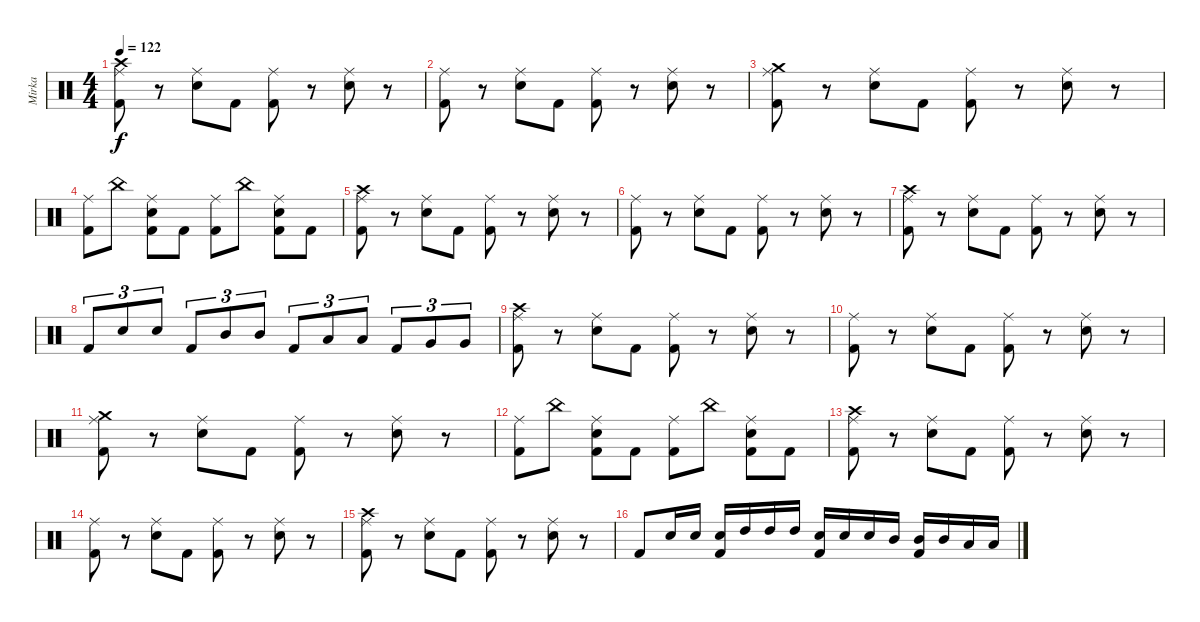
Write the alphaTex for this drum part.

\track ("Mirka" "Mirka") {instrument percussion}
\staff {score}
\articulation defaults
\ts (4 4)
\tempo 122
\clef neutral
\ks c
("Crash high (hit)" "Ride (middle)" "Kick (hit) 2").8{dy f} r.8 ("Ride (middle)" "Electric Snare (hit)").8 "Kick (hit) 2".8 ("Ride (middle)" "Kick (hit) 2").8 r.8 ("Ride (middle)" "Electric Snare (hit)").8 r.8 |
("Ride (middle)" "Kick (hit) 2").8 r.8 ("Ride (middle)" "Electric Snare (hit)").8 "Kick (hit) 2".8 ("Ride (middle)" "Kick (hit) 2").8 r.8 ("Ride (middle)" "Electric Snare (hit)").8 r.8 |
("Crash medium (hit)" "Ride (middle)" "Kick (hit) 2").8 r.8 ("Ride (middle)" "Electric Snare (hit)").8 "Kick (hit) 2".8 ("Ride (middle)" "Kick (hit) 2").8 r.8 ("Ride (middle)" "Electric Snare (hit)").8 r.8 |
("Ride (middle)" "Kick (hit) 2").8 "China (hit)".8 ("Ride (middle)" "Electric Snare (hit)" "Kick (hit) 2").8 "Kick (hit) 2".8 ("Ride (middle)" "Kick (hit) 2").8 "China (hit)".8 ("Ride (middle)" "Electric Snare (hit)" "Kick (hit) 2").8 "Kick (hit) 2".8 |
("Crash high (hit)" "Ride (middle)" "Kick (hit) 2").8 r.8 ("Ride (middle)" "Electric Snare (hit)").8 "Kick (hit) 2".8 ("Ride (middle)" "Kick (hit) 2").8 r.8 ("Ride (middle)" "Electric Snare (hit)").8 r.8 |
("Ride (middle)" "Kick (hit) 2").8 r.8 ("Ride (middle)" "Electric Snare (hit)").8 "Kick (hit) 2".8 ("Ride (middle)" "Kick (hit) 2").8 r.8 ("Ride (middle)" "Electric Snare (hit)").8 r.8 |
("Crash high (hit)" "Ride (middle)" "Kick (hit) 2").8 r.8 ("Ride (middle)" "Electric Snare (hit)").8 "Kick (hit) 2".8 ("Ride (middle)" "Kick (hit) 2").8 r.8 ("Ride (middle)" "Electric Snare (hit)").8 r.8 |
"Kick (hit) 2".8{tu (3 2)} "Electric Snare (hit)".8{tu (3 2)} "Electric Snare (hit)".8{tu (3 2)} "Kick (hit) 2".8{tu (3 2)} "Mid Tom (hit)".8{tu (3 2)} "Mid Tom (hit)".8{tu (3 2)} "Kick (hit) 2".8{tu (3 2)} "Low Tom (hit)".8{tu (3 2)} "Low Tom (hit)".8{tu (3 2)} "Kick (hit) 2".8{tu (3 2)} "Very Low Tom (hit)".8{tu (3 2)} "Very Low Tom (hit)".8{tu (3 2)} |
("Crash high (hit)" "Ride (middle)" "Kick (hit) 2").8 r.8 ("Ride (middle)" "Electric Snare (hit)").8 "Kick (hit) 2".8 ("Ride (middle)" "Kick (hit) 2").8 r.8 ("Ride (middle)" "Electric Snare (hit)").8 r.8 |
("Ride (middle)" "Kick (hit) 2").8 r.8 ("Ride (middle)" "Electric Snare (hit)").8 "Kick (hit) 2".8 ("Ride (middle)" "Kick (hit) 2").8 r.8 ("Ride (middle)" "Electric Snare (hit)").8 r.8 |
("Crash medium (hit)" "Ride (middle)" "Kick (hit) 2").8 r.8 ("Ride (middle)" "Electric Snare (hit)").8 "Kick (hit) 2".8 ("Ride (middle)" "Kick (hit) 2").8 r.8 ("Ride (middle)" "Electric Snare (hit)").8 r.8 |
("Ride (middle)" "Kick (hit) 2").8 "China (hit)".8 ("Ride (middle)" "Electric Snare (hit)" "Kick (hit) 2").8 "Kick (hit) 2".8 ("Ride (middle)" "Kick (hit) 2").8 "China (hit)".8 ("Ride (middle)" "Electric Snare (hit)" "Kick (hit) 2").8 "Kick (hit) 2".8 |
("Crash high (hit)" "Ride (middle)" "Kick (hit) 2").8 r.8 ("Ride (middle)" "Electric Snare (hit)").8 "Kick (hit) 2".8 ("Ride (middle)" "Kick (hit) 2").8 r.8 ("Ride (middle)" "Electric Snare (hit)").8 r.8 |
("Ride (middle)" "Kick (hit) 2").8 r.8 ("Ride (middle)" "Electric Snare (hit)").8 "Kick (hit) 2".8 ("Ride (middle)" "Kick (hit) 2").8 r.8 ("Ride (middle)" "Electric Snare (hit)").8 r.8 |
("Crash high (hit)" "Ride (middle)" "Kick (hit) 2").8 r.8 ("Ride (middle)" "Electric Snare (hit)").8 "Kick (hit) 2".8 ("Ride (middle)" "Kick (hit) 2").8 r.8 ("Ride (middle)" "Electric Snare (hit)").8 r.8 |
"Kick (hit) 2".8 "Electric Snare (hit)".16 "Electric Snare (hit)".16 ("Electric Snare (hit)" "Kick (hit) 2").16 "High Tom (hit)".16 "High Tom (hit)".16 "High Tom (hit)".16 ("Electric Snare (hit)" "Kick (hit) 2").16 "Electric Snare (hit)".16 "Electric Snare (hit)".16 "Mid Tom (hit)".16 ("Mid Tom (hit)" "Kick (hit) 2").16 "Mid Tom (hit)".16 "Low Tom (hit)".16 "Low Tom (hit)".16
